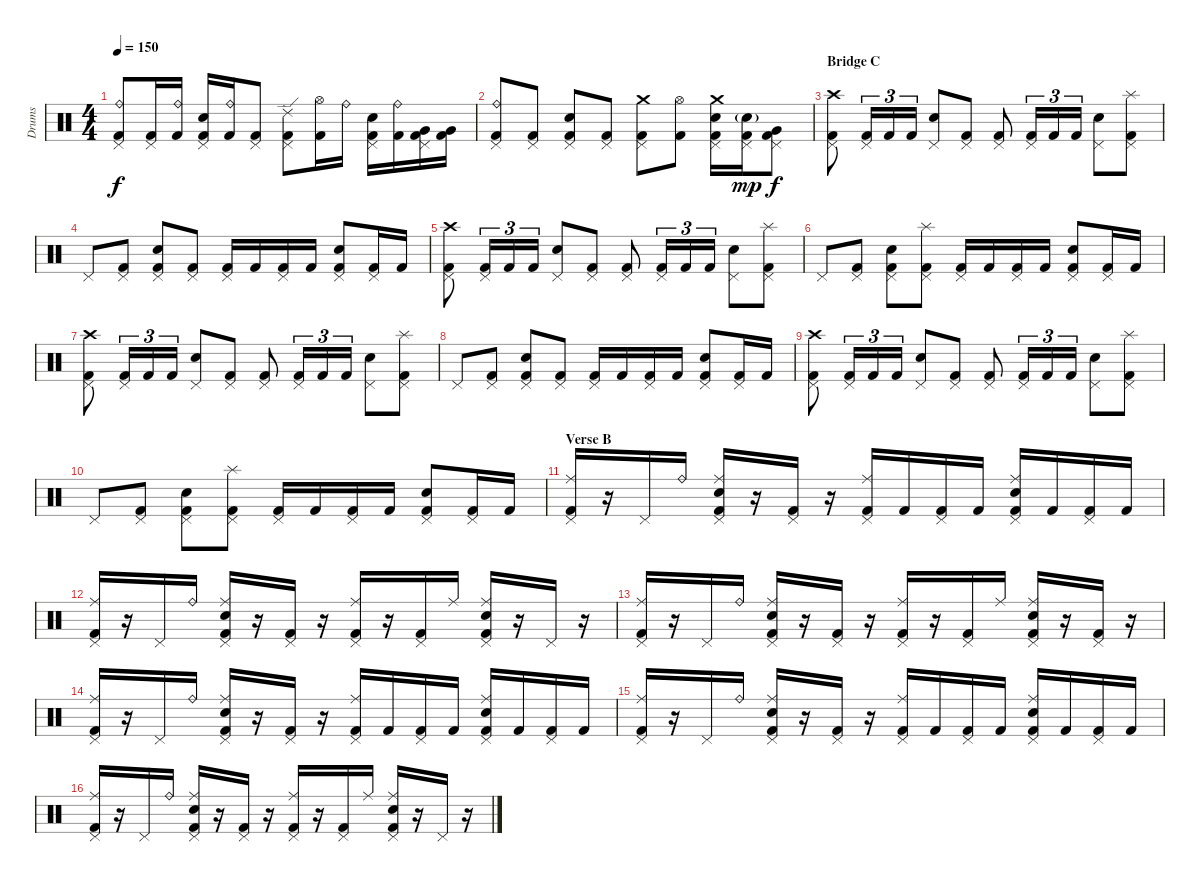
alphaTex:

\track ("Drums" "Drums") {instrument percussion}
\staff {score}
\articulation defaults
\ts (4 4)
\tempo 150
\clef neutral
\ks c
("Kick (hit) 2" "Ride (bell)" "Pedal Hi-Hat (hit)").8{dy f} ("Kick (hit) 2" "Pedal Hi-Hat (hit)").16 ("Kick (hit) 2" "Ride (bell)").16 ("Kick (hit) 2" "Snare (hit) 2" "Pedal Hi-Hat (hit)").16 ("Kick (hit) 2" "Ride (bell)").16 ("Kick (hit) 2" "Pedal Hi-Hat (hit)").8 ("Kick (hit) 2" "Ride (edge) 2" "Pedal Hi-Hat (hit)").8 ("Kick (hit) 2" "Hi-Hat (open)").16 "Ride (bell)".16 ("Kick (hit) 2" "Snare (hit) 2" "Pedal Hi-Hat (hit)").16 ("Kick (hit) 2" "Ride (bell)").16 ("Kick (hit) 2" "Very Low Tom (hit)" "Pedal Hi-Hat (hit)").16 ("Kick (hit) 2" "Very Low Tom (hit)").16 |
("Kick (hit) 2" "Ride (bell)" "Pedal Hi-Hat (hit)").8 ("Kick (hit) 2" "Pedal Hi-Hat (hit)").8 ("Kick (hit) 2" "Snare (hit) 2" "Pedal Hi-Hat (hit)").8 ("Kick (hit) 2" "Pedal Hi-Hat (hit)").8 ("Kick (hit) 2" "Crash medium (hit)" "Pedal Hi-Hat (hit)").8 ("Kick (hit) 2" "Hi-Hat (open)").8 ("Kick (hit) 2" "Crash medium (hit)" "Snare (hit) 2" "Pedal Hi-Hat (hit)").16 ("Kick (hit) 2" "Snare (hit) 2"{g} "Pedal Hi-Hat (hit)").16{dy mp} ("Kick (hit) 2" "Very Low Tom (hit)" "Pedal Hi-Hat (hit)").8{dy f} |
\section ("" "Bridge C")
("Kick (hit) 2" "Pedal Hi-Hat (hit)" "Crash high (hit)").8 ("Kick (hit) 2" "Pedal Hi-Hat (hit)").16{tu (3 2)} "Kick (hit) 2".16{tu (3 2)} "Kick (hit) 2".16{tu (3 2)} ("Pedal Hi-Hat (hit)" "Snare (hit) 2").8 ("Kick (hit) 2" "Pedal Hi-Hat (hit)").8 ("Kick (hit) 2" "Pedal Hi-Hat (hit)").8 ("Kick (hit) 2" "Pedal Hi-Hat (hit)").16{tu (3 2)} "Kick (hit) 2".16{tu (3 2)} "Kick (hit) 2".16{tu (3 2)} ("Pedal Hi-Hat (hit)" "Snare (hit) 2").8 ("Kick (hit) 2" "Splash (hit)" "Pedal Hi-Hat (hit)").8 |
"Pedal Hi-Hat (hit)".8 ("Kick (hit) 2" "Pedal Hi-Hat (hit)").8 ("Kick (hit) 2" "Pedal Hi-Hat (hit)" "Snare (hit) 2").8 ("Kick (hit) 2" "Pedal Hi-Hat (hit)").8 ("Kick (hit) 2" "Pedal Hi-Hat (hit)").16 "Kick (hit) 2".16 ("Kick (hit) 2" "Pedal Hi-Hat (hit)").16 "Kick (hit) 2".16 ("Kick (hit) 2" "Pedal Hi-Hat (hit)" "Snare (hit) 2").8 ("Kick (hit) 2" "Pedal Hi-Hat (hit)").16 "Kick (hit) 2".16 |
("Kick (hit) 2" "Pedal Hi-Hat (hit)" "Crash high (hit)").8 ("Kick (hit) 2" "Pedal Hi-Hat (hit)").16{tu (3 2)} "Kick (hit) 2".16{tu (3 2)} "Kick (hit) 2".16{tu (3 2)} ("Pedal Hi-Hat (hit)" "Snare (hit) 2").8 ("Kick (hit) 2" "Pedal Hi-Hat (hit)").8 ("Kick (hit) 2" "Pedal Hi-Hat (hit)").8 ("Kick (hit) 2" "Pedal Hi-Hat (hit)").16{tu (3 2)} "Kick (hit) 2".16{tu (3 2)} "Kick (hit) 2".16{tu (3 2)} ("Pedal Hi-Hat (hit)" "Snare (hit) 2").8 ("Kick (hit) 2" "Splash (hit)" "Pedal Hi-Hat (hit)").8 |
"Pedal Hi-Hat (hit)".8 ("Kick (hit) 2" "Pedal Hi-Hat (hit)").8 ("Kick (hit) 2" "Pedal Hi-Hat (hit)" "Snare (hit) 2").8 ("Kick (hit) 2" "Splash (hit)" "Pedal Hi-Hat (hit)").8 ("Kick (hit) 2" "Pedal Hi-Hat (hit)").16 "Kick (hit) 2".16 ("Kick (hit) 2" "Pedal Hi-Hat (hit)").16 "Kick (hit) 2".16 ("Kick (hit) 2" "Pedal Hi-Hat (hit)" "Snare (hit) 2").8 ("Kick (hit) 2" "Pedal Hi-Hat (hit)").16 "Kick (hit) 2".16 |
("Kick (hit) 2" "Pedal Hi-Hat (hit)" "Crash high (hit)").8 ("Kick (hit) 2" "Pedal Hi-Hat (hit)").16{tu (3 2)} "Kick (hit) 2".16{tu (3 2)} "Kick (hit) 2".16{tu (3 2)} ("Pedal Hi-Hat (hit)" "Snare (hit) 2").8 ("Kick (hit) 2" "Pedal Hi-Hat (hit)").8 ("Kick (hit) 2" "Pedal Hi-Hat (hit)").8 ("Kick (hit) 2" "Pedal Hi-Hat (hit)").16{tu (3 2)} "Kick (hit) 2".16{tu (3 2)} "Kick (hit) 2".16{tu (3 2)} ("Pedal Hi-Hat (hit)" "Snare (hit) 2").8 ("Kick (hit) 2" "Splash (hit)" "Pedal Hi-Hat (hit)").8 |
"Pedal Hi-Hat (hit)".8 ("Kick (hit) 2" "Pedal Hi-Hat (hit)").8 ("Kick (hit) 2" "Pedal Hi-Hat (hit)" "Snare (hit) 2").8 ("Kick (hit) 2" "Pedal Hi-Hat (hit)").8 ("Kick (hit) 2" "Pedal Hi-Hat (hit)").16 "Kick (hit) 2".16 ("Kick (hit) 2" "Pedal Hi-Hat (hit)").16 "Kick (hit) 2".16 ("Kick (hit) 2" "Pedal Hi-Hat (hit)" "Snare (hit) 2").8 ("Kick (hit) 2" "Pedal Hi-Hat (hit)").16 "Kick (hit) 2".16 |
("Kick (hit) 2" "Pedal Hi-Hat (hit)" "Crash high (hit)").8 ("Kick (hit) 2" "Pedal Hi-Hat (hit)").16{tu (3 2)} "Kick (hit) 2".16{tu (3 2)} "Kick (hit) 2".16{tu (3 2)} ("Pedal Hi-Hat (hit)" "Snare (hit) 2").8 ("Kick (hit) 2" "Pedal Hi-Hat (hit)").8 ("Kick (hit) 2" "Pedal Hi-Hat (hit)").8 ("Kick (hit) 2" "Pedal Hi-Hat (hit)").16{tu (3 2)} "Kick (hit) 2".16{tu (3 2)} "Kick (hit) 2".16{tu (3 2)} ("Pedal Hi-Hat (hit)" "Snare (hit) 2").8 ("Kick (hit) 2" "Splash (hit)" "Pedal Hi-Hat (hit)").8 |
"Pedal Hi-Hat (hit)".8 ("Kick (hit) 2" "Pedal Hi-Hat (hit)").8 ("Kick (hit) 2" "Pedal Hi-Hat (hit)" "Snare (hit) 2").8 ("Kick (hit) 2" "Splash (hit)" "Pedal Hi-Hat (hit)").8 ("Kick (hit) 2" "Pedal Hi-Hat (hit)").16 "Kick (hit) 2".16 ("Kick (hit) 2" "Pedal Hi-Hat (hit)").16 "Kick (hit) 2".16 ("Kick (hit) 2" "Pedal Hi-Hat (hit)" "Snare (hit) 2").8 ("Kick (hit) 2" "Pedal Hi-Hat (hit)").16 "Kick (hit) 2".16 |
\section ("" "Verse B")
("Kick (hit) 2" "Pedal Hi-Hat (hit)" "Ride (middle)").16 r.16 "Pedal Hi-Hat (hit)".16 "Ride (bell)".16 ("Kick (hit) 2" "Pedal Hi-Hat (hit)" "Snare (hit) 2" "Ride (middle)").16 r.16 ("Kick (hit) 2" "Pedal Hi-Hat (hit)").16 r.16 ("Kick (hit) 2" "Pedal Hi-Hat (hit)" "Ride (middle)").16 "Kick (hit) 2".16 ("Kick (hit) 2" "Pedal Hi-Hat (hit)").16 "Kick (hit) 2".16 ("Kick (hit) 2" "Pedal Hi-Hat (hit)" "Snare (hit) 2" "Ride (middle)").16 "Kick (hit) 2".16 ("Kick (hit) 2" "Pedal Hi-Hat (hit)").16 "Kick (hit) 2".16 |
("Kick (hit) 2" "Pedal Hi-Hat (hit)" "Ride (middle)").16 r.16 "Pedal Hi-Hat (hit)".16 "Ride (bell)".16 ("Kick (hit) 2" "Pedal Hi-Hat (hit)" "Snare (hit) 2" "Ride (middle)").16 r.16 ("Kick (hit) 2" "Pedal Hi-Hat (hit)").16 r.16 ("Kick (hit) 2" "Pedal Hi-Hat (hit)" "Ride (middle)").16 r.16 ("Kick (hit) 2" "Pedal Hi-Hat (hit)").16 "Ride (middle)".16 ("Kick (hit) 2" "Pedal Hi-Hat (hit)" "Snare (hit) 2" "Ride (middle)").16 r.16 "Pedal Hi-Hat (hit)".16 r.16 |
("Kick (hit) 2" "Pedal Hi-Hat (hit)" "Ride (middle)").16 r.16 "Pedal Hi-Hat (hit)".16 "Ride (bell)".16 ("Kick (hit) 2" "Pedal Hi-Hat (hit)" "Snare (hit) 2" "Ride (middle)").16 r.16 ("Kick (hit) 2" "Pedal Hi-Hat (hit)").16 r.16 ("Kick (hit) 2" "Pedal Hi-Hat (hit)" "Ride (middle)").16 r.16 ("Kick (hit) 2" "Pedal Hi-Hat (hit)").16 "Ride (middle)".16 ("Kick (hit) 2" "Pedal Hi-Hat (hit)" "Snare (hit) 2" "Ride (middle)").16 r.16 ("Kick (hit) 2" "Pedal Hi-Hat (hit)").16 r.16 |
("Kick (hit) 2" "Pedal Hi-Hat (hit)" "Ride (middle)").16 r.16 "Pedal Hi-Hat (hit)".16 "Ride (bell)".16 ("Kick (hit) 2" "Pedal Hi-Hat (hit)" "Snare (hit) 2" "Ride (middle)").16 r.16 ("Kick (hit) 2" "Pedal Hi-Hat (hit)").16 r.16 ("Kick (hit) 2" "Pedal Hi-Hat (hit)" "Ride (middle)").16 "Kick (hit) 2".16 ("Kick (hit) 2" "Pedal Hi-Hat (hit)").16 "Kick (hit) 2".16 ("Kick (hit) 2" "Pedal Hi-Hat (hit)" "Snare (hit) 2" "Ride (middle)").16 "Kick (hit) 2".16 ("Kick (hit) 2" "Pedal Hi-Hat (hit)").16 "Kick (hit) 2".16 |
("Kick (hit) 2" "Pedal Hi-Hat (hit)" "Ride (middle)").16 r.16 "Pedal Hi-Hat (hit)".16 "Ride (bell)".16 ("Kick (hit) 2" "Pedal Hi-Hat (hit)" "Snare (hit) 2" "Ride (middle)").16 r.16 ("Kick (hit) 2" "Pedal Hi-Hat (hit)").16 r.16 ("Kick (hit) 2" "Pedal Hi-Hat (hit)" "Ride (middle)").16 "Kick (hit) 2".16 ("Kick (hit) 2" "Pedal Hi-Hat (hit)").16 "Kick (hit) 2".16 ("Kick (hit) 2" "Pedal Hi-Hat (hit)" "Snare (hit) 2" "Ride (middle)").16 "Kick (hit) 2".16 ("Kick (hit) 2" "Pedal Hi-Hat (hit)").16 "Kick (hit) 2".16 |
("Kick (hit) 2" "Pedal Hi-Hat (hit)" "Ride (middle)").16 r.16 "Pedal Hi-Hat (hit)".16 "Ride (bell)".16 ("Kick (hit) 2" "Pedal Hi-Hat (hit)" "Snare (hit) 2" "Ride (middle)").16 r.16 ("Kick (hit) 2" "Pedal Hi-Hat (hit)").16 r.16 ("Kick (hit) 2" "Pedal Hi-Hat (hit)" "Ride (middle)").16 r.16 ("Kick (hit) 2" "Pedal Hi-Hat (hit)").16 "Ride (middle)".16 ("Kick (hit) 2" "Pedal Hi-Hat (hit)" "Snare (hit) 2" "Ride (middle)").16 r.16 "Pedal Hi-Hat (hit)".16 r.16
